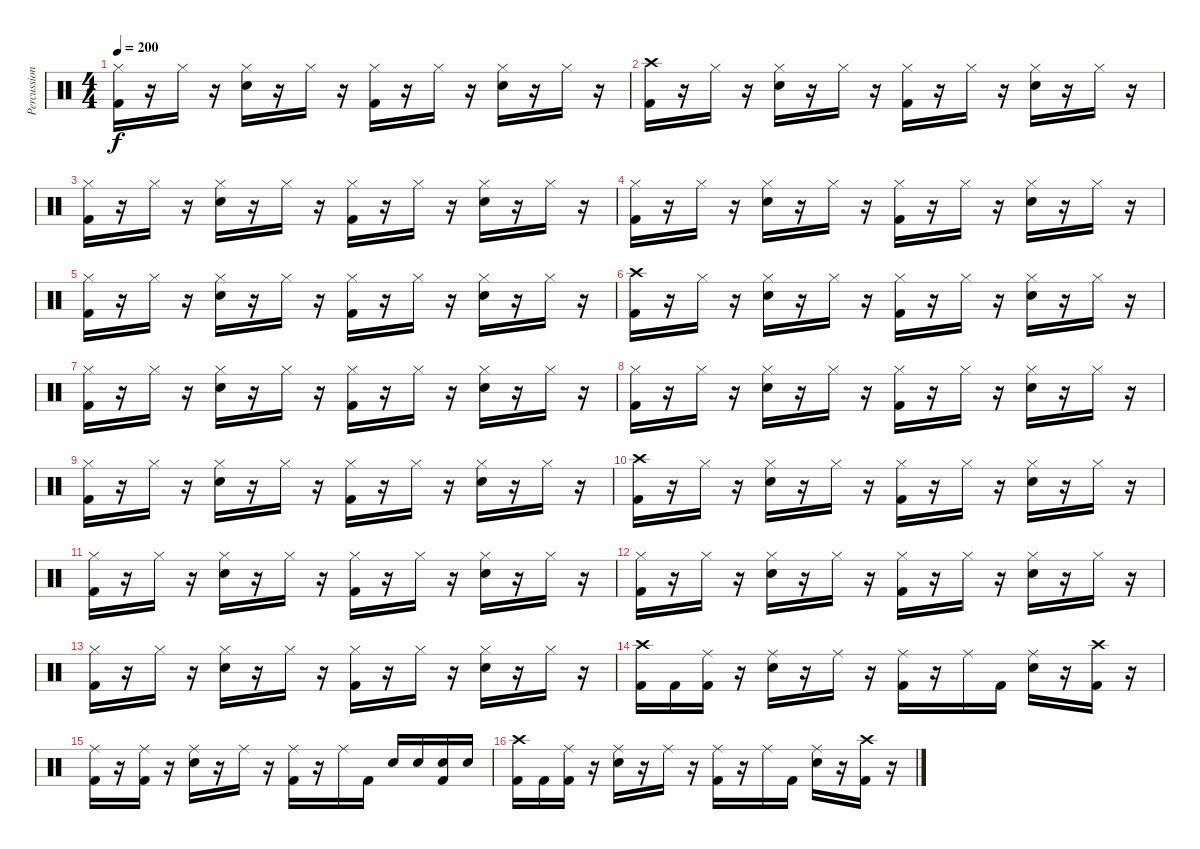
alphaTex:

\track ("Percussion" "Percussion") {instrument percussion}
\staff {score}
\articulation defaults
\ts (4 4)
\tempo 200
\clef neutral
\ks c
("Hi-Hat (closed)" "Kick (hit) 2").16{dy f} r.16 "Hi-Hat (closed)".16 r.16 ("Hi-Hat (closed)" "Electric Snare (hit)").16 r.16 "Hi-Hat (closed)".16 r.16 ("Hi-Hat (closed)" "Kick (hit) 2").16 r.16 "Hi-Hat (closed)".16 r.16 ("Hi-Hat (closed)" "Electric Snare (hit)").16 r.16 "Hi-Hat (closed)".16 r.16 |
("Crash high (hit)" "Kick (hit) 2").16 r.16 "Hi-Hat (closed)".16 r.16 ("Hi-Hat (closed)" "Electric Snare (hit)").16 r.16 "Hi-Hat (closed)".16 r.16 ("Hi-Hat (closed)" "Kick (hit) 2").16 r.16 "Hi-Hat (closed)".16 r.16 ("Hi-Hat (closed)" "Electric Snare (hit)").16 r.16 "Hi-Hat (closed)".16 r.16 |
("Hi-Hat (closed)" "Kick (hit) 2").16 r.16 "Hi-Hat (closed)".16 r.16 ("Hi-Hat (closed)" "Electric Snare (hit)").16 r.16 "Hi-Hat (closed)".16 r.16 ("Hi-Hat (closed)" "Kick (hit) 2").16 r.16 "Hi-Hat (closed)".16 r.16 ("Hi-Hat (closed)" "Electric Snare (hit)").16 r.16 "Hi-Hat (closed)".16 r.16 |
("Hi-Hat (closed)" "Kick (hit) 2").16 r.16 "Hi-Hat (closed)".16 r.16 ("Hi-Hat (closed)" "Electric Snare (hit)").16 r.16 "Hi-Hat (closed)".16 r.16 ("Hi-Hat (closed)" "Kick (hit) 2").16 r.16 "Hi-Hat (closed)".16 r.16 ("Hi-Hat (closed)" "Electric Snare (hit)").16 r.16 "Hi-Hat (closed)".16 r.16 |
("Hi-Hat (closed)" "Kick (hit) 2").16 r.16 "Hi-Hat (closed)".16 r.16 ("Hi-Hat (closed)" "Electric Snare (hit)").16 r.16 "Hi-Hat (closed)".16 r.16 ("Hi-Hat (closed)" "Kick (hit) 2").16 r.16 "Hi-Hat (closed)".16 r.16 ("Hi-Hat (closed)" "Electric Snare (hit)").16 r.16 "Hi-Hat (closed)".16 r.16 |
("Crash high (hit)" "Kick (hit) 2").16 r.16 "Hi-Hat (closed)".16 r.16 ("Hi-Hat (closed)" "Electric Snare (hit)").16 r.16 "Hi-Hat (closed)".16 r.16 ("Hi-Hat (closed)" "Kick (hit) 2").16 r.16 "Hi-Hat (closed)".16 r.16 ("Hi-Hat (closed)" "Electric Snare (hit)").16 r.16 "Hi-Hat (closed)".16 r.16 |
("Hi-Hat (closed)" "Kick (hit) 2").16 r.16 "Hi-Hat (closed)".16 r.16 ("Hi-Hat (closed)" "Electric Snare (hit)").16 r.16 "Hi-Hat (closed)".16 r.16 ("Hi-Hat (closed)" "Kick (hit) 2").16 r.16 "Hi-Hat (closed)".16 r.16 ("Hi-Hat (closed)" "Electric Snare (hit)").16 r.16 "Hi-Hat (closed)".16 r.16 |
("Hi-Hat (closed)" "Kick (hit) 2").16 r.16 "Hi-Hat (closed)".16 r.16 ("Hi-Hat (closed)" "Electric Snare (hit)").16 r.16 "Hi-Hat (closed)".16 r.16 ("Hi-Hat (closed)" "Kick (hit) 2").16 r.16 "Hi-Hat (closed)".16 r.16 ("Hi-Hat (closed)" "Electric Snare (hit)").16 r.16 "Hi-Hat (closed)".16 r.16 |
("Hi-Hat (closed)" "Kick (hit) 2").16 r.16 "Hi-Hat (closed)".16 r.16 ("Hi-Hat (closed)" "Electric Snare (hit)").16 r.16 "Hi-Hat (closed)".16 r.16 ("Hi-Hat (closed)" "Kick (hit) 2").16 r.16 "Hi-Hat (closed)".16 r.16 ("Hi-Hat (closed)" "Electric Snare (hit)").16 r.16 "Hi-Hat (closed)".16 r.16 |
("Crash high (hit)" "Kick (hit) 2").16 r.16 "Hi-Hat (closed)".16 r.16 ("Hi-Hat (closed)" "Electric Snare (hit)").16 r.16 "Hi-Hat (closed)".16 r.16 ("Hi-Hat (closed)" "Kick (hit) 2").16 r.16 "Hi-Hat (closed)".16 r.16 ("Hi-Hat (closed)" "Electric Snare (hit)").16 r.16 "Hi-Hat (closed)".16 r.16 |
("Hi-Hat (closed)" "Kick (hit) 2").16 r.16 "Hi-Hat (closed)".16 r.16 ("Hi-Hat (closed)" "Electric Snare (hit)").16 r.16 "Hi-Hat (closed)".16 r.16 ("Hi-Hat (closed)" "Kick (hit) 2").16 r.16 "Hi-Hat (closed)".16 r.16 ("Hi-Hat (closed)" "Electric Snare (hit)").16 r.16 "Hi-Hat (closed)".16 r.16 |
("Hi-Hat (closed)" "Kick (hit) 2").16 r.16 "Hi-Hat (closed)".16 r.16 ("Hi-Hat (closed)" "Electric Snare (hit)").16 r.16 "Hi-Hat (closed)".16 r.16 ("Hi-Hat (closed)" "Kick (hit) 2").16 r.16 "Hi-Hat (closed)".16 r.16 ("Hi-Hat (closed)" "Electric Snare (hit)").16 r.16 "Hi-Hat (closed)".16 r.16 |
("Hi-Hat (closed)" "Kick (hit) 2").16 r.16 "Hi-Hat (closed)".16 r.16 ("Hi-Hat (closed)" "Electric Snare (hit)").16 r.16 "Hi-Hat (closed)".16 r.16 ("Hi-Hat (closed)" "Kick (hit) 2").16 r.16 "Hi-Hat (closed)".16 r.16 ("Hi-Hat (closed)" "Electric Snare (hit)").16 r.16 "Hi-Hat (closed)".16 r.16 |
("Crash high (hit)" "Kick (hit) 2").16 "Kick (hit) 2".16 ("Ride (middle)" "Kick (hit) 2").16 r.16 ("Ride (middle)" "Electric Snare (hit)").16 r.16 "Ride (middle)".16 r.16 ("Ride (middle)" "Kick (hit) 2").16 r.16 "Ride (middle)".16 "Kick (hit) 2".16 ("Ride (middle)" "Electric Snare (hit)").16 r.16 ("Crash high (hit)" "Kick (hit) 2").16 r.16 |
("Ride (middle)" "Kick (hit) 2").16 r.16 ("Ride (middle)" "Kick (hit) 2").16 r.16 ("Ride (middle)" "Electric Snare (hit)").16 r.16 "Ride (middle)".16 r.16 ("Ride (middle)" "Kick (hit) 2").16 r.16 "Ride (middle)".16 "Kick (hit) 2".16 "Electric Snare (hit)".16 "Electric Snare (hit)".16 ("Electric Snare (hit)" "Kick (hit) 2").16 "Electric Snare (hit)".16 |
("Crash high (hit)" "Kick (hit) 2").16 "Kick (hit) 2".16 ("Ride (middle)" "Kick (hit) 2").16 r.16 ("Ride (middle)" "Electric Snare (hit)").16 r.16 "Ride (middle)".16 r.16 ("Ride (middle)" "Kick (hit) 2").16 r.16 "Ride (middle)".16 "Kick (hit) 2".16 ("Ride (middle)" "Electric Snare (hit)").16 r.16 ("Crash high (hit)" "Kick (hit) 2").16 r.16
